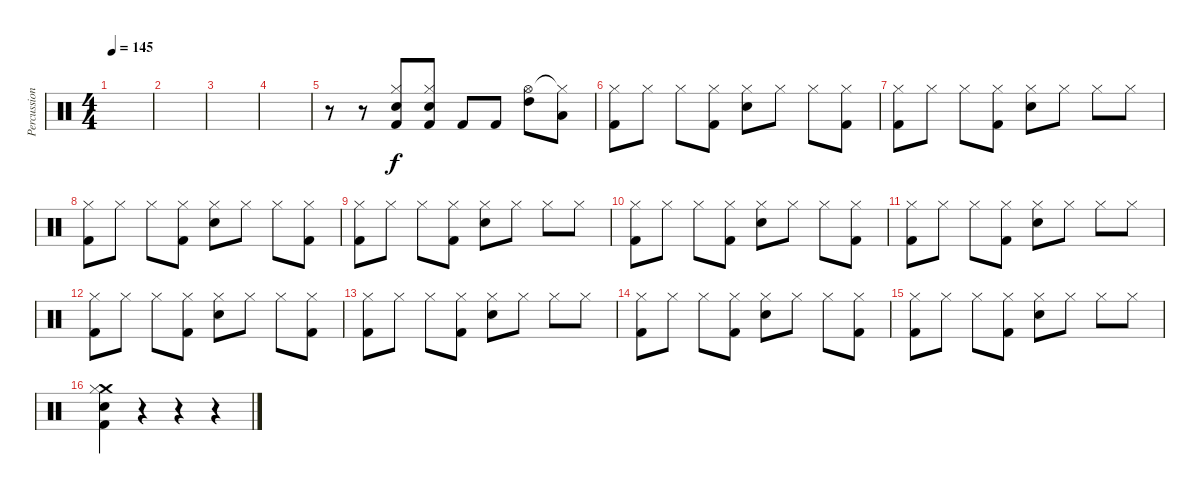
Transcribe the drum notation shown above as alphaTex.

\track ("Percussion" "Percussion") {instrument percussion bank 1}
\staff {score}
\articulation defaults
\ts (4 4)
\tempo 145
\clef neutral
\ks c
|
|
|
|
r.8 r.8 ("Electric Snare (hit)" "Hi-Hat (closed)" "Kick (hit) 2").8 ("Electric Snare (hit)" "Hi-Hat (closed)" "Kick (hit) 2").8 "Kick (hit) 2".8 "Kick (hit) 2".8 ("High Tom (hit)" "Hi-Hat (open)").8 ("Low Tom (hit)" "Hi-Hat (closed)"{t}).8 |
("Hi-Hat (closed)" "Kick (hit) 2").8 "Hi-Hat (closed)".8 "Hi-Hat (closed)".8 ("Hi-Hat (closed)" "Kick (hit) 2").8 ("Electric Snare (hit)" "Hi-Hat (closed)").8 "Hi-Hat (closed)".8 "Hi-Hat (closed)".8 ("Hi-Hat (closed)" "Kick (hit) 2").8 |
("Hi-Hat (closed)" "Kick (hit) 2").8 "Hi-Hat (closed)".8 "Hi-Hat (closed)".8 ("Hi-Hat (closed)" "Kick (hit) 2").8 ("Electric Snare (hit)" "Hi-Hat (closed)").8 "Hi-Hat (closed)".8 "Hi-Hat (closed)".8 "Hi-Hat (closed)".8 |
("Hi-Hat (closed)" "Kick (hit) 2").8 "Hi-Hat (closed)".8 "Hi-Hat (closed)".8 ("Hi-Hat (closed)" "Kick (hit) 2").8 ("Electric Snare (hit)" "Hi-Hat (closed)").8 "Hi-Hat (closed)".8 "Hi-Hat (closed)".8 ("Hi-Hat (closed)" "Kick (hit) 2").8 |
("Hi-Hat (closed)" "Kick (hit) 2").8 "Hi-Hat (closed)".8 "Hi-Hat (closed)".8 ("Hi-Hat (closed)" "Kick (hit) 2").8 ("Electric Snare (hit)" "Hi-Hat (closed)").8 "Hi-Hat (closed)".8 "Hi-Hat (closed)".8 "Hi-Hat (closed)".8 |
("Hi-Hat (closed)" "Kick (hit) 2").8 "Hi-Hat (closed)".8 "Hi-Hat (closed)".8 ("Hi-Hat (closed)" "Kick (hit) 2").8 ("Electric Snare (hit)" "Hi-Hat (closed)").8 "Hi-Hat (closed)".8 "Hi-Hat (closed)".8 ("Hi-Hat (closed)" "Kick (hit) 2").8 |
("Hi-Hat (closed)" "Kick (hit) 2").8 "Hi-Hat (closed)".8 "Hi-Hat (closed)".8 ("Hi-Hat (closed)" "Kick (hit) 2").8 ("Electric Snare (hit)" "Hi-Hat (closed)").8 "Hi-Hat (closed)".8 "Hi-Hat (closed)".8 "Hi-Hat (closed)".8 |
("Hi-Hat (closed)" "Kick (hit) 2").8 "Hi-Hat (closed)".8 "Hi-Hat (closed)".8 ("Hi-Hat (closed)" "Kick (hit) 2").8 ("Electric Snare (hit)" "Hi-Hat (closed)").8 "Hi-Hat (closed)".8 "Hi-Hat (closed)".8 ("Hi-Hat (closed)" "Kick (hit) 2").8 |
("Hi-Hat (closed)" "Kick (hit) 2").8 "Hi-Hat (closed)".8 "Hi-Hat (closed)".8 ("Hi-Hat (closed)" "Kick (hit) 2").8 ("Electric Snare (hit)" "Hi-Hat (closed)").8 "Hi-Hat (closed)".8 "Hi-Hat (closed)".8 "Hi-Hat (closed)".8 |
("Hi-Hat (closed)" "Kick (hit) 2").8 "Hi-Hat (closed)".8 "Hi-Hat (closed)".8 ("Hi-Hat (closed)" "Kick (hit) 2").8 ("Electric Snare (hit)" "Hi-Hat (closed)").8 "Hi-Hat (closed)".8 "Hi-Hat (closed)".8 ("Hi-Hat (closed)" "Kick (hit) 2").8 |
("Hi-Hat (closed)" "Kick (hit) 2").8 "Hi-Hat (closed)".8 "Hi-Hat (closed)".8 ("Hi-Hat (closed)" "Kick (hit) 2").8 ("Electric Snare (hit)" "Hi-Hat (closed)").8 "Hi-Hat (closed)".8 "Hi-Hat (closed)".8 "Hi-Hat (closed)".8 |
("Crash medium (hit)" "Electric Snare (hit)" "Hi-Hat (closed)" "Kick (hit) 2").4 r.4 r.4 r.4
